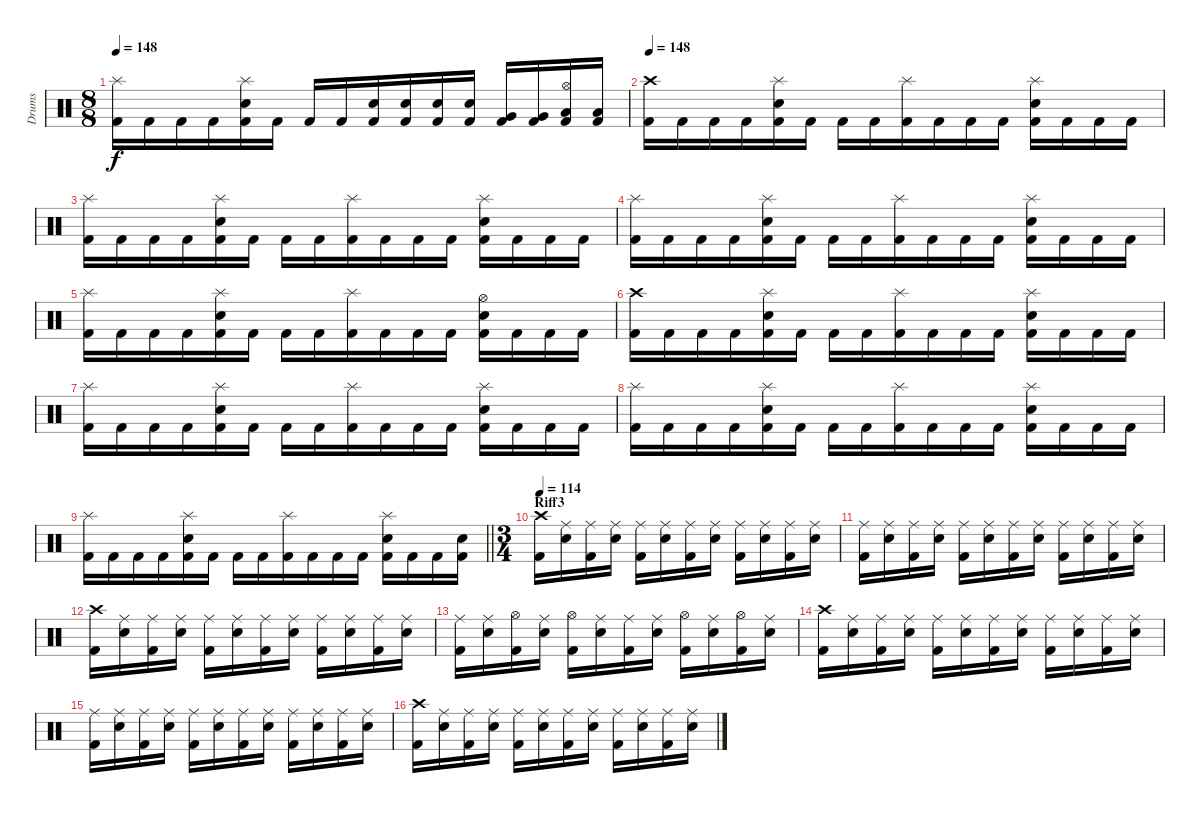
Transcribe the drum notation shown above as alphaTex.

\track ("Drums" "Drums") {instrument percussion}
\staff {score}
\articulation defaults
\ts (8 8)
\tempo 148
\clef neutral
\ks c
("Splash (hit)" "Kick (hit) 2").16{dy f} "Kick (hit) 2".16 "Kick (hit) 2".16 "Kick (hit) 2".16 ("Splash (hit)" "Snare (hit) 2" "Kick (hit) 2").16 "Kick (hit) 2".16 "Kick (hit) 2".16 "Kick (hit) 2".16 ("Snare (hit) 2" "Kick (hit) 2").16 ("Snare (hit) 2" "Kick (hit) 2").16 ("Snare (hit) 2" "Kick (hit) 2").16 ("Snare (hit) 2" "Kick (hit) 2").16 ("Very Low Tom (hit)" "Kick (hit) 2").16 ("Very Low Tom (hit)" "Kick (hit) 2").16 ("Hi-Hat (open)" "Low Floor Tom (hit)" "Kick (hit) 2").16 ("Low Floor Tom (hit)" "Kick (hit) 2").16 |
\tempo 148
("Crash high (hit)" "Kick (hit) 2").16 "Kick (hit) 2".16 "Kick (hit) 2".16 "Kick (hit) 2".16 ("Splash (hit)" "Snare (hit) 2" "Kick (hit) 2").16 "Kick (hit) 2".16 "Kick (hit) 2".16 "Kick (hit) 2".16 ("Splash (hit)" "Kick (hit) 2").16 "Kick (hit) 2".16 "Kick (hit) 2".16 "Kick (hit) 2".16 ("Splash (hit)" "Snare (hit) 2" "Kick (hit) 2").16 "Kick (hit) 2".16 "Kick (hit) 2".16 "Kick (hit) 2".16 |
("Splash (hit)" "Kick (hit) 2").16 "Kick (hit) 2".16 "Kick (hit) 2".16 "Kick (hit) 2".16 ("Splash (hit)" "Snare (hit) 2" "Kick (hit) 2").16 "Kick (hit) 2".16 "Kick (hit) 2".16 "Kick (hit) 2".16 ("Splash (hit)" "Kick (hit) 2").16 "Kick (hit) 2".16 "Kick (hit) 2".16 "Kick (hit) 2".16 ("Splash (hit)" "Snare (hit) 2" "Kick (hit) 2").16 "Kick (hit) 2".16 "Kick (hit) 2".16 "Kick (hit) 2".16 |
("Splash (hit)" "Kick (hit) 2").16 "Kick (hit) 2".16 "Kick (hit) 2".16 "Kick (hit) 2".16 ("Splash (hit)" "Snare (hit) 2" "Kick (hit) 2").16 "Kick (hit) 2".16 "Kick (hit) 2".16 "Kick (hit) 2".16 ("Splash (hit)" "Kick (hit) 2").16 "Kick (hit) 2".16 "Kick (hit) 2".16 "Kick (hit) 2".16 ("Splash (hit)" "Snare (hit) 2" "Kick (hit) 2").16 "Kick (hit) 2".16 "Kick (hit) 2".16 "Kick (hit) 2".16 |
("Splash (hit)" "Kick (hit) 2").16 "Kick (hit) 2".16 "Kick (hit) 2".16 "Kick (hit) 2".16 ("Splash (hit)" "Snare (hit) 2" "Kick (hit) 2").16 "Kick (hit) 2".16 "Kick (hit) 2".16 "Kick (hit) 2".16 ("Splash (hit)" "Kick (hit) 2").16 "Kick (hit) 2".16 "Kick (hit) 2".16 "Kick (hit) 2".16 ("Hi-Hat (open)" "Snare (hit) 2" "Kick (hit) 2").16 "Kick (hit) 2".16 "Kick (hit) 2".16 "Kick (hit) 2".16 |
("Crash high (hit)" "Kick (hit) 2").16 "Kick (hit) 2".16 "Kick (hit) 2".16 "Kick (hit) 2".16 ("Splash (hit)" "Snare (hit) 2" "Kick (hit) 2").16 "Kick (hit) 2".16 "Kick (hit) 2".16 "Kick (hit) 2".16 ("Splash (hit)" "Kick (hit) 2").16 "Kick (hit) 2".16 "Kick (hit) 2".16 "Kick (hit) 2".16 ("Splash (hit)" "Snare (hit) 2" "Kick (hit) 2").16 "Kick (hit) 2".16 "Kick (hit) 2".16 "Kick (hit) 2".16 |
("Splash (hit)" "Kick (hit) 2").16 "Kick (hit) 2".16 "Kick (hit) 2".16 "Kick (hit) 2".16 ("Splash (hit)" "Snare (hit) 2" "Kick (hit) 2").16 "Kick (hit) 2".16 "Kick (hit) 2".16 "Kick (hit) 2".16 ("Splash (hit)" "Kick (hit) 2").16 "Kick (hit) 2".16 "Kick (hit) 2".16 "Kick (hit) 2".16 ("Splash (hit)" "Snare (hit) 2" "Kick (hit) 2").16 "Kick (hit) 2".16 "Kick (hit) 2".16 "Kick (hit) 2".16 |
("Splash (hit)" "Kick (hit) 2").16 "Kick (hit) 2".16 "Kick (hit) 2".16 "Kick (hit) 2".16 ("Splash (hit)" "Snare (hit) 2" "Kick (hit) 2").16 "Kick (hit) 2".16 "Kick (hit) 2".16 "Kick (hit) 2".16 ("Splash (hit)" "Kick (hit) 2").16 "Kick (hit) 2".16 "Kick (hit) 2".16 "Kick (hit) 2".16 ("Splash (hit)" "Snare (hit) 2" "Kick (hit) 2").16 "Kick (hit) 2".16 "Kick (hit) 2".16 "Kick (hit) 2".16 |
\barLineRight lightlight
("Splash (hit)" "Kick (hit) 2").16 "Kick (hit) 2".16 "Kick (hit) 2".16 "Kick (hit) 2".16 ("Splash (hit)" "Snare (hit) 2" "Kick (hit) 2").16 "Kick (hit) 2".16 "Kick (hit) 2".16 "Kick (hit) 2".16 ("Splash (hit)" "Kick (hit) 2").16 "Kick (hit) 2".16 "Kick (hit) 2".16 "Kick (hit) 2".16 ("Splash (hit)" "Snare (hit) 2" "Kick (hit) 2").16 "Kick (hit) 2".16 "Kick (hit) 2".16 ("Snare (hit) 2" "Kick (hit) 2").16 |
\ts (3 4)
\section ("" "Riff3")
\tempo 114
("Crash high (hit)" "Kick (hit) 2").16 ("Ride (middle)" "Snare (hit) 2").16 ("Ride (middle)" "Kick (hit) 2").16 ("Ride (middle)" "Snare (hit) 2").16 ("Ride (middle)" "Kick (hit) 2").16 ("Ride (middle)" "Snare (hit) 2").16 ("Ride (middle)" "Kick (hit) 2").16 ("Ride (middle)" "Snare (hit) 2").16 ("Ride (middle)" "Kick (hit) 2").16 ("Ride (middle)" "Snare (hit) 2").16 ("Ride (middle)" "Kick (hit) 2").16 ("Ride (middle)" "Snare (hit) 2").16 |
("Ride (middle)" "Kick (hit) 2").16 ("Ride (middle)" "Snare (hit) 2").16 ("Ride (middle)" "Kick (hit) 2").16 ("Ride (middle)" "Snare (hit) 2").16 ("Ride (middle)" "Kick (hit) 2").16 ("Ride (middle)" "Snare (hit) 2").16 ("Ride (middle)" "Kick (hit) 2").16 ("Ride (middle)" "Snare (hit) 2").16 ("Ride (middle)" "Kick (hit) 2").16 ("Ride (middle)" "Snare (hit) 2").16 ("Ride (middle)" "Kick (hit) 2").16 ("Ride (middle)" "Snare (hit) 2").16 |
("Crash high (hit)" "Kick (hit) 2").16 ("Ride (middle)" "Snare (hit) 2").16 ("Ride (middle)" "Kick (hit) 2").16 ("Ride (middle)" "Snare (hit) 2").16 ("Ride (middle)" "Kick (hit) 2").16 ("Ride (middle)" "Snare (hit) 2").16 ("Ride (middle)" "Kick (hit) 2").16 ("Ride (middle)" "Snare (hit) 2").16 ("Ride (middle)" "Kick (hit) 2").16 ("Ride (middle)" "Snare (hit) 2").16 ("Ride (middle)" "Kick (hit) 2").16 ("Ride (middle)" "Snare (hit) 2").16 |
("Ride (middle)" "Kick (hit) 2").16 ("Ride (middle)" "Snare (hit) 2").16 ("Hi-Hat (open)" "Kick (hit) 2").16 ("Ride (middle)" "Snare (hit) 2").16 ("Hi-Hat (open)" "Kick (hit) 2").16 ("Ride (middle)" "Snare (hit) 2").16 ("Ride (middle)" "Kick (hit) 2").16 ("Ride (middle)" "Snare (hit) 2").16 ("Hi-Hat (open)" "Kick (hit) 2").16 ("Ride (middle)" "Snare (hit) 2").16 ("Hi-Hat (open)" "Kick (hit) 2").16 ("Ride (middle)" "Snare (hit) 2").16 |
("Crash high (hit)" "Kick (hit) 2").16 ("Ride (middle)" "Snare (hit) 2").16 ("Ride (middle)" "Kick (hit) 2").16 ("Ride (middle)" "Snare (hit) 2").16 ("Ride (middle)" "Kick (hit) 2").16 ("Ride (middle)" "Snare (hit) 2").16 ("Ride (middle)" "Kick (hit) 2").16 ("Ride (middle)" "Snare (hit) 2").16 ("Ride (middle)" "Kick (hit) 2").16 ("Ride (middle)" "Snare (hit) 2").16 ("Ride (middle)" "Kick (hit) 2").16 ("Ride (middle)" "Snare (hit) 2").16 |
("Ride (middle)" "Kick (hit) 2").16 ("Ride (middle)" "Snare (hit) 2").16 ("Ride (middle)" "Kick (hit) 2").16 ("Ride (middle)" "Snare (hit) 2").16 ("Ride (middle)" "Kick (hit) 2").16 ("Ride (middle)" "Snare (hit) 2").16 ("Ride (middle)" "Kick (hit) 2").16 ("Ride (middle)" "Snare (hit) 2").16 ("Ride (middle)" "Kick (hit) 2").16 ("Ride (middle)" "Snare (hit) 2").16 ("Ride (middle)" "Kick (hit) 2").16 ("Ride (middle)" "Snare (hit) 2").16 |
("Crash high (hit)" "Kick (hit) 2").16 ("Ride (middle)" "Snare (hit) 2").16 ("Ride (middle)" "Kick (hit) 2").16 ("Ride (middle)" "Snare (hit) 2").16 ("Ride (middle)" "Kick (hit) 2").16 ("Ride (middle)" "Snare (hit) 2").16 ("Ride (middle)" "Kick (hit) 2").16 ("Ride (middle)" "Snare (hit) 2").16 ("Ride (middle)" "Kick (hit) 2").16 ("Ride (middle)" "Snare (hit) 2").16 ("Ride (middle)" "Kick (hit) 2").16 ("Ride (middle)" "Snare (hit) 2").16
